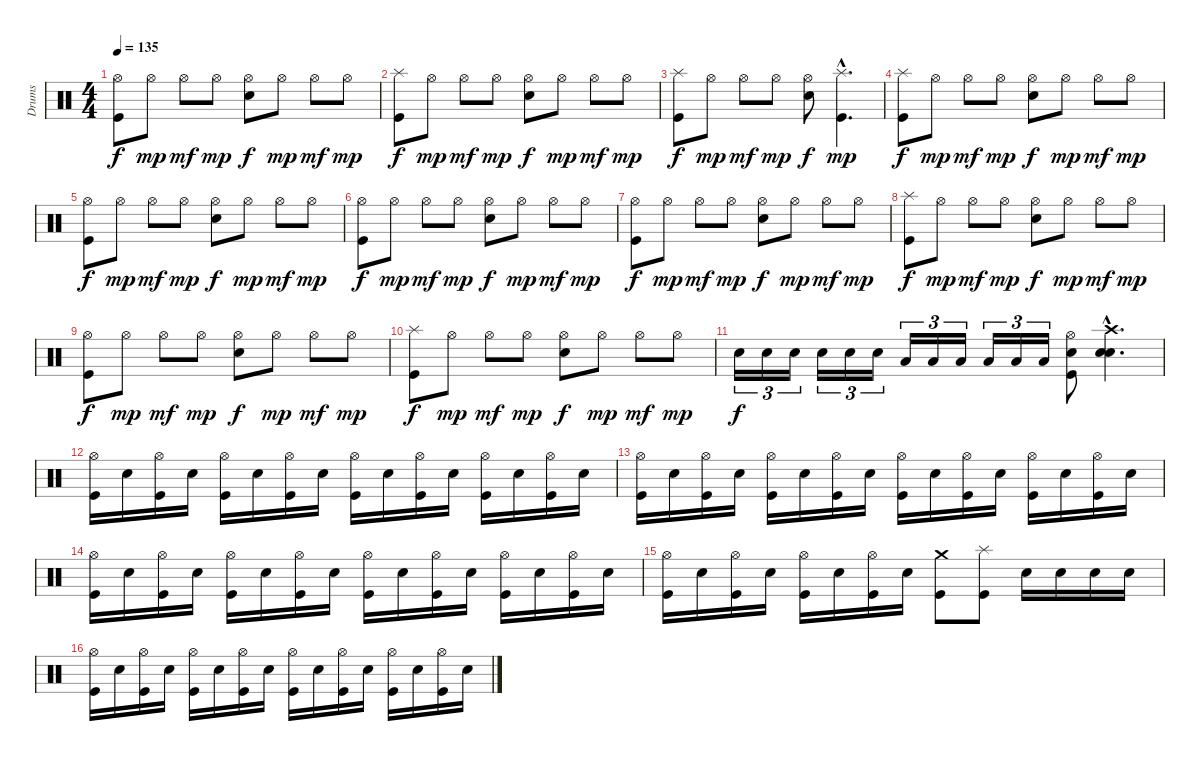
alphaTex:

\track ("Drums" "Drums") {instrument percussion}
\staff {score}
\articulation defaults
\ts (4 4)
\tempo 135
\clef neutral
\ks c
("Hi-Hat (open)" "Kick (hit)").8{dy f} "Hi-Hat (open)".8{dy mp} "Hi-Hat (open)".8{dy mf} "Hi-Hat (open)".8{dy mp} ("Hi-Hat (open)" "Snare (hit) 2").8{dy f} "Hi-Hat (open)".8{dy mp} "Hi-Hat (open)".8{dy mf} "Hi-Hat (open)".8{dy mp} |
("Splash (hit)" "Kick (hit)").8{dy f} "Hi-Hat (open)".8{dy mp} "Hi-Hat (open)".8{dy mf} "Hi-Hat (open)".8{dy mp} ("Hi-Hat (open)" "Snare (hit) 2").8{dy f} "Hi-Hat (open)".8{dy mp} "Hi-Hat (open)".8{dy mf} "Hi-Hat (open)".8{dy mp} |
("Splash (hit)" "Kick (hit)").8{dy f} "Hi-Hat (open)".8{dy mp} "Hi-Hat (open)".8{dy mf} "Hi-Hat (open)".8{dy mp} ("Hi-Hat (open)" "Snare (hit) 2").8{dy f} ("Splash (hit)"{hac} "Kick (hit)"{hac}).4{d dy mp} |
("Splash (hit)" "Kick (hit)").8{dy f} "Hi-Hat (open)".8{dy mp} "Hi-Hat (open)".8{dy mf} "Hi-Hat (open)".8{dy mp} ("Hi-Hat (open)" "Snare (hit) 2").8{dy f} "Hi-Hat (open)".8{dy mp} "Hi-Hat (open)".8{dy mf} "Hi-Hat (open)".8{dy mp} |
("Hi-Hat (open)" "Kick (hit)").8{dy f} "Hi-Hat (open)".8{dy mp} "Hi-Hat (open)".8{dy mf} "Hi-Hat (open)".8{dy mp} ("Hi-Hat (open)" "Snare (hit) 2").8{dy f} "Hi-Hat (open)".8{dy mp} "Hi-Hat (open)".8{dy mf} "Hi-Hat (open)".8{dy mp} |
("Hi-Hat (open)" "Kick (hit)").8{dy f} "Hi-Hat (open)".8{dy mp} "Hi-Hat (open)".8{dy mf} "Hi-Hat (open)".8{dy mp} ("Hi-Hat (open)" "Snare (hit) 2").8{dy f} "Hi-Hat (open)".8{dy mp} "Hi-Hat (open)".8{dy mf} "Hi-Hat (open)".8{dy mp} |
("Hi-Hat (open)" "Kick (hit)").8{dy f} "Hi-Hat (open)".8{dy mp} "Hi-Hat (open)".8{dy mf} "Hi-Hat (open)".8{dy mp} ("Hi-Hat (open)" "Snare (hit) 2").8{dy f} "Hi-Hat (open)".8{dy mp} "Hi-Hat (open)".8{dy mf} "Hi-Hat (open)".8{dy mp} |
("Splash (hit)" "Kick (hit)").8{dy f} "Hi-Hat (open)".8{dy mp} "Hi-Hat (open)".8{dy mf} "Hi-Hat (open)".8{dy mp} ("Hi-Hat (open)" "Snare (hit) 2").8{dy f} "Hi-Hat (open)".8{dy mp} "Hi-Hat (open)".8{dy mf} "Hi-Hat (open)".8{dy mp} |
("Hi-Hat (open)" "Kick (hit)").8{dy f} "Hi-Hat (open)".8{dy mp} "Hi-Hat (open)".8{dy mf} "Hi-Hat (open)".8{dy mp} ("Hi-Hat (open)" "Snare (hit) 2").8{dy f} "Hi-Hat (open)".8{dy mp} "Hi-Hat (open)".8{dy mf} "Hi-Hat (open)".8{dy mp} |
("Splash (hit)" "Kick (hit)").8{dy f} "Hi-Hat (open)".8{dy mp} "Hi-Hat (open)".8{dy mf} "Hi-Hat (open)".8{dy mp} ("Hi-Hat (open)" "Snare (hit) 2").8{dy f} "Hi-Hat (open)".8{dy mp} "Hi-Hat (open)".8{dy mf} "Hi-Hat (open)".8{dy mp} |
"Snare (hit) 2".16{tu (3 2) dy f} "Snare (hit) 2".16{tu (3 2)} "Snare (hit) 2".16{tu (3 2)} "Snare (hit) 2".16{tu (3 2)} "Snare (hit) 2".16{tu (3 2)} "Snare (hit) 2".16{tu (3 2)} "Low Tom (hit)".16{tu (3 2)} "Low Tom (hit)".16{tu (3 2)} "Low Tom (hit)".16{tu (3 2)} "Low Tom (hit)".16{tu (3 2)} "Low Tom (hit)".16{tu (3 2)} "Low Tom (hit)".16{tu (3 2)} ("Hi-Hat (open)" "Snare (hit) 2" "Kick (hit)").8 ("Crash high (hit)"{hac} "Snare (hit) 2"{hac} "Snare (hit) 2"{hac}).4{d} |
("Hi-Hat (open)" "Kick (hit)").16 "Snare (hit) 2".16 ("Hi-Hat (open)" "Kick (hit)").16 "Snare (hit) 2".16 ("Hi-Hat (open)" "Kick (hit)").16 "Snare (hit) 2".16 ("Hi-Hat (open)" "Kick (hit)").16 "Snare (hit) 2".16 ("Hi-Hat (open)" "Kick (hit)").16 "Snare (hit) 2".16 ("Hi-Hat (open)" "Kick (hit)").16 "Snare (hit) 2".16 ("Hi-Hat (open)" "Kick (hit)").16 "Snare (hit) 2".16 ("Hi-Hat (open)" "Kick (hit)").16 "Snare (hit) 2".16 |
("Hi-Hat (open)" "Kick (hit)").16 "Snare (hit) 2".16 ("Hi-Hat (open)" "Kick (hit)").16 "Snare (hit) 2".16 ("Hi-Hat (open)" "Kick (hit)").16 "Snare (hit) 2".16 ("Hi-Hat (open)" "Kick (hit)").16 "Snare (hit) 2".16 ("Hi-Hat (open)" "Kick (hit)").16 "Snare (hit) 2".16 ("Hi-Hat (open)" "Kick (hit)").16 "Snare (hit) 2".16 ("Hi-Hat (open)" "Kick (hit)").16 "Snare (hit) 2".16 ("Hi-Hat (open)" "Kick (hit)").16 "Snare (hit) 2".16 |
("Hi-Hat (open)" "Kick (hit)").16 "Snare (hit) 2".16 ("Hi-Hat (open)" "Kick (hit)").16 "Snare (hit) 2".16 ("Hi-Hat (open)" "Kick (hit)").16 "Snare (hit) 2".16 ("Hi-Hat (open)" "Kick (hit)").16 "Snare (hit) 2".16 ("Hi-Hat (open)" "Kick (hit)").16 "Snare (hit) 2".16 ("Hi-Hat (open)" "Kick (hit)").16 "Snare (hit) 2".16 ("Hi-Hat (open)" "Kick (hit)").16 "Snare (hit) 2".16 ("Hi-Hat (open)" "Kick (hit)").16 "Snare (hit) 2".16 |
("Hi-Hat (open)" "Kick (hit)").16 "Snare (hit) 2".16 ("Hi-Hat (open)" "Kick (hit)").16 "Snare (hit) 2".16 ("Hi-Hat (open)" "Kick (hit)").16 "Snare (hit) 2".16 ("Hi-Hat (open)" "Kick (hit)").16 "Snare (hit) 2".16 ("Crash medium (hit)" "Kick (hit)").8 ("Splash (hit)" "Kick (hit)").8 "Snare (hit) 2".16 "Snare (hit) 2".16 "Snare (hit) 2".16 "Snare (hit) 2".16 |
("Hi-Hat (open)" "Kick (hit)").16 "Snare (hit) 2".16 ("Hi-Hat (open)" "Kick (hit)").16 "Snare (hit) 2".16 ("Hi-Hat (open)" "Kick (hit)").16 "Snare (hit) 2".16 ("Hi-Hat (open)" "Kick (hit)").16 "Snare (hit) 2".16 ("Hi-Hat (open)" "Kick (hit)").16 "Snare (hit) 2".16 ("Hi-Hat (open)" "Kick (hit)").16 "Snare (hit) 2".16 ("Hi-Hat (open)" "Kick (hit)").16 "Snare (hit) 2".16 ("Hi-Hat (open)" "Kick (hit)").16 "Snare (hit) 2".16
